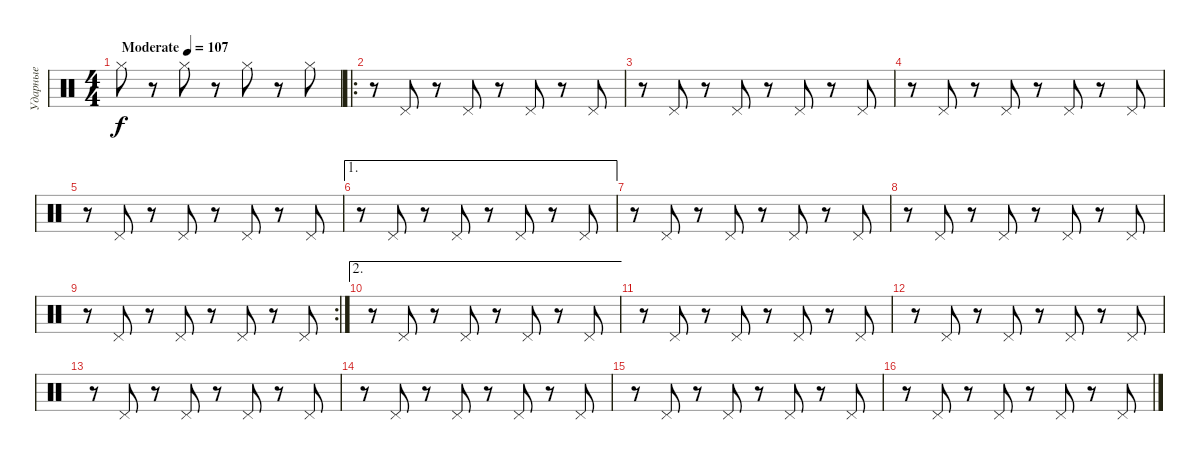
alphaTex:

\track ("Ударные" "Ударные") {instrument percussion}
\staff {score}
\articulation defaults
\ts (4 4)
\tempo (107 "Moderate")
\clef neutral
\ks c "Hi-Hat (closed)".8{dy f}
r.8 "Hi-Hat (closed)".8 r.8 "Hi-Hat (closed)".8 r.8 "Hi-Hat (closed)".8 |
\ro
r.8 "Pedal Hi-Hat (hit)".8 r.8 "Pedal Hi-Hat (hit)".8 r.8 "Pedal Hi-Hat (hit)".8 r.8 "Pedal Hi-Hat (hit)".8 |
r.8 "Pedal Hi-Hat (hit)".8 r.8 "Pedal Hi-Hat (hit)".8 r.8 "Pedal Hi-Hat (hit)".8 r.8 "Pedal Hi-Hat (hit)".8 |
r.8 "Pedal Hi-Hat (hit)".8 r.8 "Pedal Hi-Hat (hit)".8 r.8 "Pedal Hi-Hat (hit)".8 r.8 "Pedal Hi-Hat (hit)".8 |
r.8 "Pedal Hi-Hat (hit)".8 r.8 "Pedal Hi-Hat (hit)".8 r.8 "Pedal Hi-Hat (hit)".8 r.8 "Pedal Hi-Hat (hit)".8 |
\ae 1
r.8 "Pedal Hi-Hat (hit)".8 r.8 "Pedal Hi-Hat (hit)".8 r.8 "Pedal Hi-Hat (hit)".8 r.8 "Pedal Hi-Hat (hit)".8 |
r.8 "Pedal Hi-Hat (hit)".8 r.8 "Pedal Hi-Hat (hit)".8 r.8 "Pedal Hi-Hat (hit)".8 r.8 "Pedal Hi-Hat (hit)".8 |
r.8 "Pedal Hi-Hat (hit)".8 r.8 "Pedal Hi-Hat (hit)".8 r.8 "Pedal Hi-Hat (hit)".8 r.8 "Pedal Hi-Hat (hit)".8 |
\rc 2
r.8 "Pedal Hi-Hat (hit)".8 r.8 "Pedal Hi-Hat (hit)".8 r.8 "Pedal Hi-Hat (hit)".8 r.8 "Pedal Hi-Hat (hit)".8 |
\ae 2
r.8 "Pedal Hi-Hat (hit)".8 r.8 "Pedal Hi-Hat (hit)".8 r.8 "Pedal Hi-Hat (hit)".8 r.8 "Pedal Hi-Hat (hit)".8 |
r.8 "Pedal Hi-Hat (hit)".8 r.8 "Pedal Hi-Hat (hit)".8 r.8 "Pedal Hi-Hat (hit)".8 r.8 "Pedal Hi-Hat (hit)".8 |
r.8 "Pedal Hi-Hat (hit)".8 r.8 "Pedal Hi-Hat (hit)".8 r.8 "Pedal Hi-Hat (hit)".8 r.8 "Pedal Hi-Hat (hit)".8 |
r.8 "Pedal Hi-Hat (hit)".8 r.8 "Pedal Hi-Hat (hit)".8 r.8 "Pedal Hi-Hat (hit)".8 r.8 "Pedal Hi-Hat (hit)".8 |
r.8 "Pedal Hi-Hat (hit)".8 r.8 "Pedal Hi-Hat (hit)".8 r.8 "Pedal Hi-Hat (hit)".8 r.8 "Pedal Hi-Hat (hit)".8 |
r.8 "Pedal Hi-Hat (hit)".8 r.8 "Pedal Hi-Hat (hit)".8 r.8 "Pedal Hi-Hat (hit)".8 r.8 "Pedal Hi-Hat (hit)".8 |
r.8 "Pedal Hi-Hat (hit)".8 r.8 "Pedal Hi-Hat (hit)".8 r.8 "Pedal Hi-Hat (hit)".8 r.8 "Pedal Hi-Hat (hit)".8
